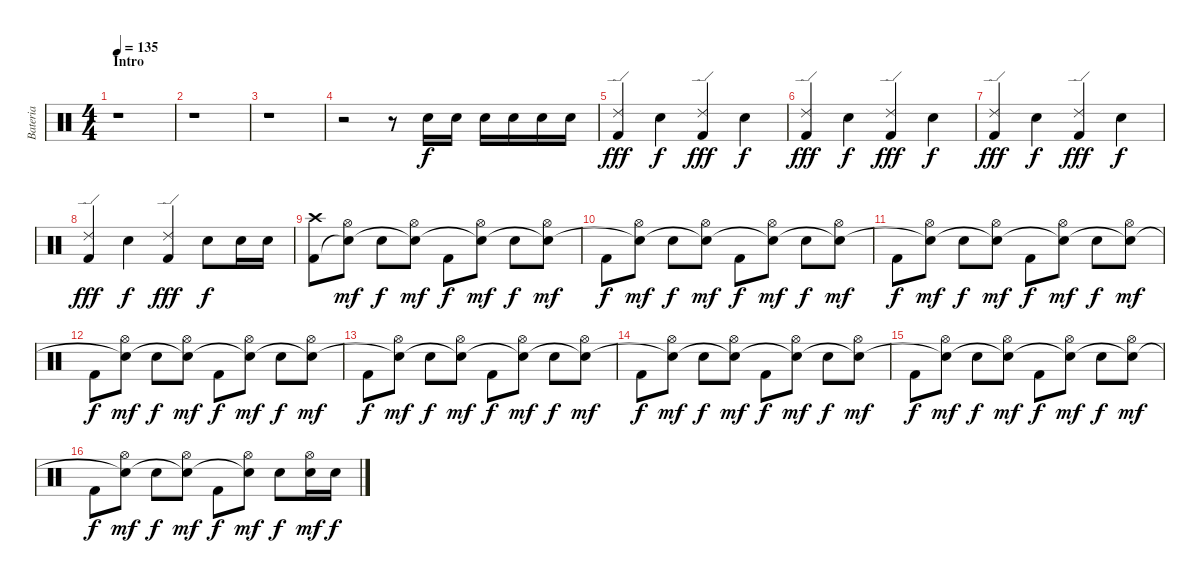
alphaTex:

\track ("Bateria" "Bateria") {instrument percussion}
\staff {score}
\articulation defaults
\ts (4 4)
\section ("" "Intro")
\tempo 135
\clef neutral
\ks c
r.1{dy f} |
r.1 |
r.1 |
r.2 r.8 "Electric Snare (hit)".16 "Electric Snare (hit)".16 "Electric Snare (hit)".16 "Electric Snare (hit)".16 "Electric Snare (hit)".16 "Electric Snare (hit)".16 |
("Ride (edge) 2" "Kick (hit) 2").4{dy fff} "Electric Snare (hit)".4{dy f} ("Ride (edge) 2" "Kick (hit) 2").4{dy fff} "Electric Snare (hit)".4{dy f} |
("Ride (edge) 2" "Kick (hit) 2").4{dy fff} "Electric Snare (hit)".4{dy f} ("Ride (edge) 2" "Kick (hit) 2").4{dy fff} "Electric Snare (hit)".4{dy f} |
("Ride (edge) 2" "Kick (hit) 2").4{dy fff} "Electric Snare (hit)".4{dy f} ("Ride (edge) 2" "Kick (hit) 2").4{dy fff} "Electric Snare (hit)".4{dy f} |
("Ride (edge) 2" "Kick (hit) 2").4{dy fff} "Electric Snare (hit)".4{dy f} ("Ride (edge) 2" "Kick (hit) 2").4{dy fff} "Electric Snare (hit)".8{dy f} "Electric Snare (hit)".16 "Electric Snare (hit)".16 |
\section ("" "")
("Crash high (hit)" "Kick (hit) 2").8 ("Hi-Hat (open)" "Snare (hit)"{t}).8{dy mf} "Electric Snare (hit)".8{dy f} ("Hi-Hat (open)" "Snare (hit)"{t}).8{dy mf} "Kick (hit) 2".8{dy f} ("Hi-Hat (open)" "Snare (hit)"{t}).8{dy mf} "Electric Snare (hit)".8{dy f} ("Hi-Hat (open)" "Snare (hit)"{t}).8{dy mf} |
"Kick (hit) 2".8{dy f} ("Hi-Hat (open)" "Snare (hit)"{t}).8{dy mf} "Electric Snare (hit)".8{dy f} ("Hi-Hat (open)" "Snare (hit)"{t}).8{dy mf} "Kick (hit) 2".8{dy f} ("Hi-Hat (open)" "Snare (hit)"{t}).8{dy mf} "Electric Snare (hit)".8{dy f} ("Hi-Hat (open)" "Snare (hit)"{t}).8{dy mf} |
"Kick (hit) 2".8{dy f} ("Hi-Hat (open)" "Snare (hit)"{t}).8{dy mf} "Electric Snare (hit)".8{dy f} ("Hi-Hat (open)" "Snare (hit)"{t}).8{dy mf} "Kick (hit) 2".8{dy f} ("Hi-Hat (open)" "Snare (hit)"{t}).8{dy mf} "Electric Snare (hit)".8{dy f} ("Hi-Hat (open)" "Snare (hit)"{t}).8{dy mf} |
"Kick (hit) 2".8{dy f} ("Hi-Hat (open)" "Snare (hit)"{t}).8{dy mf} "Electric Snare (hit)".8{dy f} ("Hi-Hat (open)" "Snare (hit)"{t}).8{dy mf} "Kick (hit) 2".8{dy f} ("Hi-Hat (open)" "Snare (hit)"{t}).8{dy mf} "Electric Snare (hit)".8{dy f} ("Hi-Hat (open)" "Snare (hit)"{t}).8{dy mf} |
"Kick (hit) 2".8{dy f} ("Hi-Hat (open)" "Snare (hit)"{t}).8{dy mf} "Electric Snare (hit)".8{dy f} ("Hi-Hat (open)" "Snare (hit)"{t}).8{dy mf} "Kick (hit) 2".8{dy f} ("Hi-Hat (open)" "Snare (hit)"{t}).8{dy mf} "Electric Snare (hit)".8{dy f} ("Hi-Hat (open)" "Snare (hit)"{t}).8{dy mf} |
"Kick (hit) 2".8{dy f} ("Hi-Hat (open)" "Snare (hit)"{t}).8{dy mf} "Electric Snare (hit)".8{dy f} ("Hi-Hat (open)" "Snare (hit)"{t}).8{dy mf} "Kick (hit) 2".8{dy f} ("Hi-Hat (open)" "Snare (hit)"{t}).8{dy mf} "Electric Snare (hit)".8{dy f} ("Hi-Hat (open)" "Snare (hit)"{t}).8{dy mf} |
"Kick (hit) 2".8{dy f} ("Hi-Hat (open)" "Snare (hit)"{t}).8{dy mf} "Electric Snare (hit)".8{dy f} ("Hi-Hat (open)" "Snare (hit)"{t}).8{dy mf} "Kick (hit) 2".8{dy f} ("Hi-Hat (open)" "Snare (hit)"{t}).8{dy mf} "Electric Snare (hit)".8{dy f} ("Hi-Hat (open)" "Snare (hit)"{t}).8{dy mf} |
"Kick (hit) 2".8{dy f} ("Hi-Hat (open)" "Snare (hit)"{t}).8{dy mf} "Electric Snare (hit)".8{dy f} ("Hi-Hat (open)" "Snare (hit)"{t}).8{dy mf} "Kick (hit) 2".8{dy f} ("Hi-Hat (open)" "Snare (hit)"{t}).8{dy mf} "Electric Snare (hit)".8{dy f} ("Hi-Hat (open)" "Electric Snare (hit)").16{dy mf} "Electric Snare (hit)".16{dy f}
